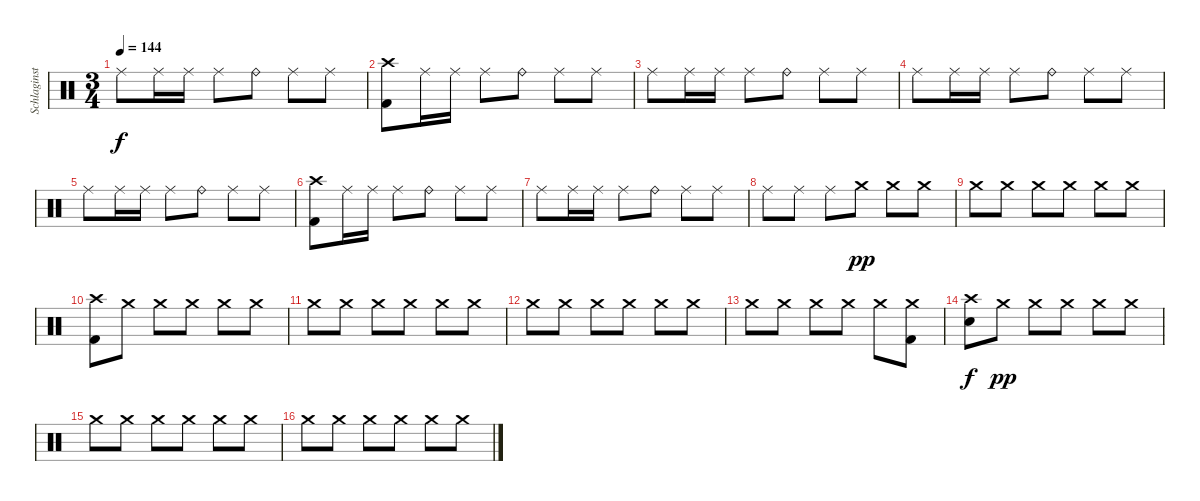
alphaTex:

\track ("Schlaginstrumente - Auswahl" "Schlaginst") {instrument percussion}
\staff {score}
\articulation defaults
\ts (3 4)
\tempo 144
\clef neutral
\ks c "Ride (middle)".8{dy f} "Ride (middle)".16 "Ride (middle)".16 "Ride (middle)".8 "Ride (bell)".8 "Ride (middle)".8 "Ride (middle)".8
|
("Crash high (hit)" "Kick (hit) 2").8 "Ride (middle)".16 "Ride (middle)".16 "Ride (middle)".8 "Ride (bell)".8 "Ride (middle)".8 "Ride (middle)".8 |
"Ride (middle)".8 "Ride (middle)".16 "Ride (middle)".16 "Ride (middle)".8 "Ride (bell)".8 "Ride (middle)".8 "Ride (middle)".8 |
"Ride (middle)".8 "Ride (middle)".16 "Ride (middle)".16 "Ride (middle)".8 "Ride (bell)".8 "Ride (middle)".8 "Ride (middle)".8 |
"Ride (middle)".8 "Ride (middle)".16 "Ride (middle)".16 "Ride (middle)".8 "Ride (bell)".8 "Ride (middle)".8 "Ride (middle)".8 |
("Crash high (hit)" "Kick (hit) 2").8 "Ride (middle)".16 "Ride (middle)".16 "Ride (middle)".8 "Ride (bell)".8 "Ride (middle)".8 "Ride (middle)".8 |
"Ride (middle)".8 "Ride (middle)".16 "Ride (middle)".16 "Ride (middle)".8 "Ride (bell)".8 "Ride (middle)".8 "Ride (middle)".8 |
"Ride (middle)".8 "Ride (middle)".8 "Ride (middle)".8 "Crash medium (hit)".8{dy pp} "Crash medium (hit)".8 "Crash medium (hit)".8 |
"Crash medium (hit)".8 "Crash medium (hit)".8 "Crash medium (hit)".8 "Crash medium (hit)".8 "Crash medium (hit)".8 "Crash medium (hit)".8 |
("Crash high (hit)" "Kick (hit) 2").8 "Crash medium (hit)".8 "Crash medium (hit)".8 "Crash medium (hit)".8 "Crash medium (hit)".8 "Crash medium (hit)".8 |
"Crash medium (hit)".8 "Crash medium (hit)".8 "Crash medium (hit)".8 "Crash medium (hit)".8 "Crash medium (hit)".8 "Crash medium (hit)".8 |
"Crash medium (hit)".8 "Crash medium (hit)".8 "Crash medium (hit)".8 "Crash medium (hit)".8 "Crash medium (hit)".8 "Crash medium (hit)".8 |
"Crash medium (hit)".8 "Crash medium (hit)".8 "Crash medium (hit)".8 "Crash medium (hit)".8 "Crash medium (hit)".8 ("Crash medium (hit)" "Kick (hit) 2").8 |
("Crash high (hit)" "Snare (hit) 2").8{dy f} "Crash medium (hit)".8{dy pp} "Crash medium (hit)".8 "Crash medium (hit)".8 "Crash medium (hit)".8 "Crash medium (hit)".8 |
"Crash medium (hit)".8 "Crash medium (hit)".8 "Crash medium (hit)".8 "Crash medium (hit)".8 "Crash medium (hit)".8 "Crash medium (hit)".8 |
"Crash medium (hit)".8 "Crash medium (hit)".8 "Crash medium (hit)".8 "Crash medium (hit)".8 "Crash medium (hit)".8 "Crash medium (hit)".8
